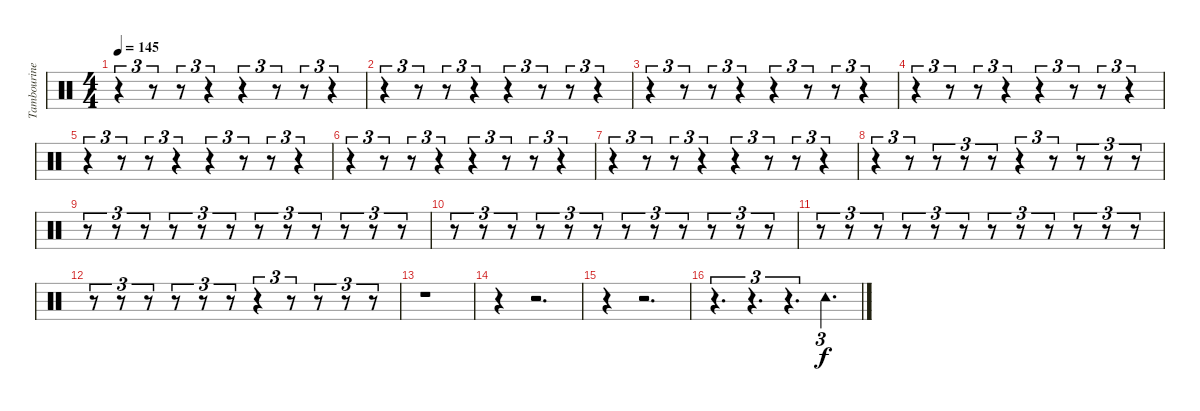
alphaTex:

\track ("Tambourine" "Tambourine") {instrument percussion}
\staff {score}
\articulation defaults
\ts (4 4)
\tempo 145
\clef neutral
\ks c
r.4{tu (3 2) dy f} r.8{tu (3 2)} r.8{tu (3 2)} r.4{tu (3 2)} r.4{tu (3 2)} r.8{tu (3 2)} r.8{tu (3 2)} r.4{tu (3 2)} |
r.4{tu (3 2)} r.8{tu (3 2)} r.8{tu (3 2)} r.4{tu (3 2)} r.4{tu (3 2)} r.8{tu (3 2)} r.8{tu (3 2)} r.4{tu (3 2)} |
r.4{tu (3 2)} r.8{tu (3 2)} r.8{tu (3 2)} r.4{tu (3 2)} r.4{tu (3 2)} r.8{tu (3 2)} r.8{tu (3 2)} r.4{tu (3 2)} |
r.4{tu (3 2)} r.8{tu (3 2)} r.8{tu (3 2)} r.4{tu (3 2)} r.4{tu (3 2)} r.8{tu (3 2)} r.8{tu (3 2)} r.4{tu (3 2)} |
r.4{tu (3 2)} r.8{tu (3 2)} r.8{tu (3 2)} r.4{tu (3 2)} r.4{tu (3 2)} r.8{tu (3 2)} r.8{tu (3 2)} r.4{tu (3 2)} |
r.4{tu (3 2)} r.8{tu (3 2)} r.8{tu (3 2)} r.4{tu (3 2)} r.4{tu (3 2)} r.8{tu (3 2)} r.8{tu (3 2)} r.4{tu (3 2)} |
r.4{tu (3 2)} r.8{tu (3 2)} r.8{tu (3 2)} r.4{tu (3 2)} r.4{tu (3 2)} r.8{tu (3 2)} r.8{tu (3 2)} r.4{tu (3 2)} |
r.4{tu (3 2)} r.8{tu (3 2)} r.8{tu (3 2)} r.8{tu (3 2)} r.8{tu (3 2)} r.4{tu (3 2)} r.8{tu (3 2)} r.8{tu (3 2)} r.8{tu (3 2)} r.8{tu (3 2)} |
r.8{tu (3 2)} r.8{tu (3 2)} r.8{tu (3 2)} r.8{tu (3 2)} r.8{tu (3 2)} r.8{tu (3 2)} r.8{tu (3 2)} r.8{tu (3 2)} r.8{tu (3 2)} r.8{tu (3 2)} r.8{tu (3 2)} r.8{tu (3 2)} |
r.8{tu (3 2)} r.8{tu (3 2)} r.8{tu (3 2)} r.8{tu (3 2)} r.8{tu (3 2)} r.8{tu (3 2)} r.8{tu (3 2)} r.8{tu (3 2)} r.8{tu (3 2)} r.8{tu (3 2)} r.8{tu (3 2)} r.8{tu (3 2)} |
r.8{tu (3 2)} r.8{tu (3 2)} r.8{tu (3 2)} r.8{tu (3 2)} r.8{tu (3 2)} r.8{tu (3 2)} r.8{tu (3 2)} r.8{tu (3 2)} r.8{tu (3 2)} r.8{tu (3 2)} r.8{tu (3 2)} r.8{tu (3 2)} |
r.8{tu (3 2)} r.8{tu (3 2)} r.8{tu (3 2)} r.8{tu (3 2)} r.8{tu (3 2)} r.8{tu (3 2)} r.4{tu (3 2)} r.8{tu (3 2)} r.8{tu (3 2)} r.8{tu (3 2)} r.8{tu (3 2)} |
r.1 |
r.4 r.2{d} |
r.4 r.2{d} |
r.4{d tu (3 2)} r.4{d tu (3 2)} r.4{d tu (3 2)} "Tambourine (hit)".4{d tu (3 2)}
